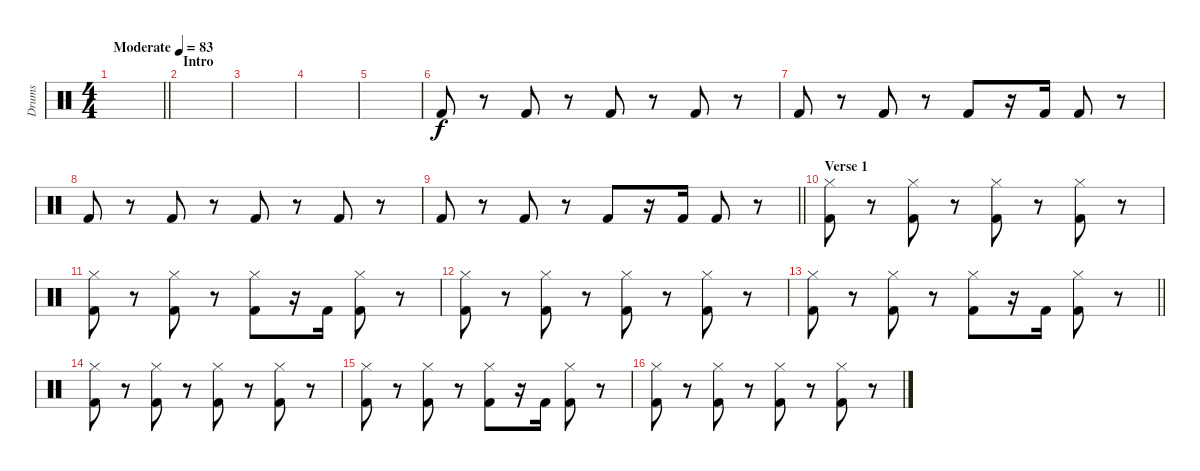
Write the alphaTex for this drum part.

\track ("Drums" "Drums") {instrument percussion}
\staff {score}
\articulation defaults
\ts (4 4)
\tempo (83 "Moderate")
\clef neutral
\barLineRight lightlight
\ks c
|
\section ("" "Intro")
|
|
|
|
"Kick (hit) 2".8 r.8 "Kick (hit) 2".8 r.8 "Kick (hit) 2".8 r.8 "Kick (hit) 2".8 r.8 |
"Kick (hit) 2".8 r.8 "Kick (hit) 2".8 r.8 "Kick (hit) 2".8 r.16 "Kick (hit) 2".16 "Kick (hit) 2".8 r.8 |
"Kick (hit) 2".8 r.8 "Kick (hit) 2".8 r.8 "Kick (hit) 2".8 r.8 "Kick (hit) 2".8 r.8 |
\barLineRight lightlight "Kick (hit) 2".8
r.8 "Kick (hit) 2".8 r.8 "Kick (hit) 2".8 r.16 "Kick (hit) 2".16 "Kick (hit) 2".8 r.8 |
\section ("" "Verse 1")
("Hi-Hat (closed)" "Kick (hit) 2").8 r.8 ("Hi-Hat (closed)" "Kick (hit) 2").8 r.8 ("Hi-Hat (closed)" "Kick (hit) 2").8 r.8 ("Hi-Hat (closed)" "Kick (hit) 2").8 r.8 |
("Hi-Hat (closed)" "Kick (hit) 2").8 r.8 ("Hi-Hat (closed)" "Kick (hit) 2").8 r.8 ("Hi-Hat (closed)" "Kick (hit) 2").8 r.16 "Kick (hit) 2".16 ("Hi-Hat (closed)" "Kick (hit) 2").8 r.8 |
("Hi-Hat (closed)" "Kick (hit) 2").8 r.8 ("Hi-Hat (closed)" "Kick (hit) 2").8 r.8 ("Hi-Hat (closed)" "Kick (hit) 2").8 r.8 ("Hi-Hat (closed)" "Kick (hit) 2").8 r.8 |
\barLineRight lightlight
("Hi-Hat (closed)" "Kick (hit) 2").8 r.8 ("Hi-Hat (closed)" "Kick (hit) 2").8 r.8 ("Hi-Hat (closed)" "Kick (hit) 2").8 r.16 "Kick (hit) 2".16 ("Hi-Hat (closed)" "Kick (hit) 2").8 r.8 |
("Hi-Hat (closed)" "Kick (hit) 2").8 r.8 ("Hi-Hat (closed)" "Kick (hit) 2").8 r.8 ("Hi-Hat (closed)" "Kick (hit) 2").8 r.8 ("Hi-Hat (closed)" "Kick (hit) 2").8 r.8 |
("Hi-Hat (closed)" "Kick (hit) 2").8 r.8 ("Hi-Hat (closed)" "Kick (hit) 2").8 r.8 ("Hi-Hat (closed)" "Kick (hit) 2").8 r.16 "Kick (hit) 2".16 ("Hi-Hat (closed)" "Kick (hit) 2").8 r.8 |
("Hi-Hat (closed)" "Kick (hit) 2").8 r.8 ("Hi-Hat (closed)" "Kick (hit) 2").8 r.8 ("Hi-Hat (closed)" "Kick (hit) 2").8 r.8 ("Hi-Hat (closed)" "Kick (hit) 2").8 r.8
